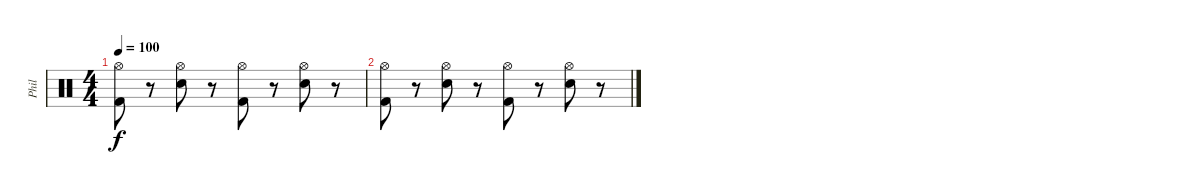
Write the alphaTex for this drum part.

\track ("Phil" "Phil") {instrument percussion}
\staff {score}
\articulation defaults
\ts (4 4)
\tempo 100
\clef neutral
\ks c
("Hi-Hat (open)" "Kick (hit) 2").8{dy f} r.8 ("Hi-Hat (open)" "Electric Snare (hit)").8 r.8 ("Hi-Hat (open)" "Kick (hit) 2").8 r.8 ("Hi-Hat (open)" "Electric Snare (hit)").8 r.8 |
("Hi-Hat (open)" "Kick (hit) 2").8 r.8 ("Hi-Hat (open)" "Electric Snare (hit)").8 r.8 ("Hi-Hat (open)" "Kick (hit) 2").8 r.8 ("Hi-Hat (open)" "Electric Snare (hit)").8 r.8
